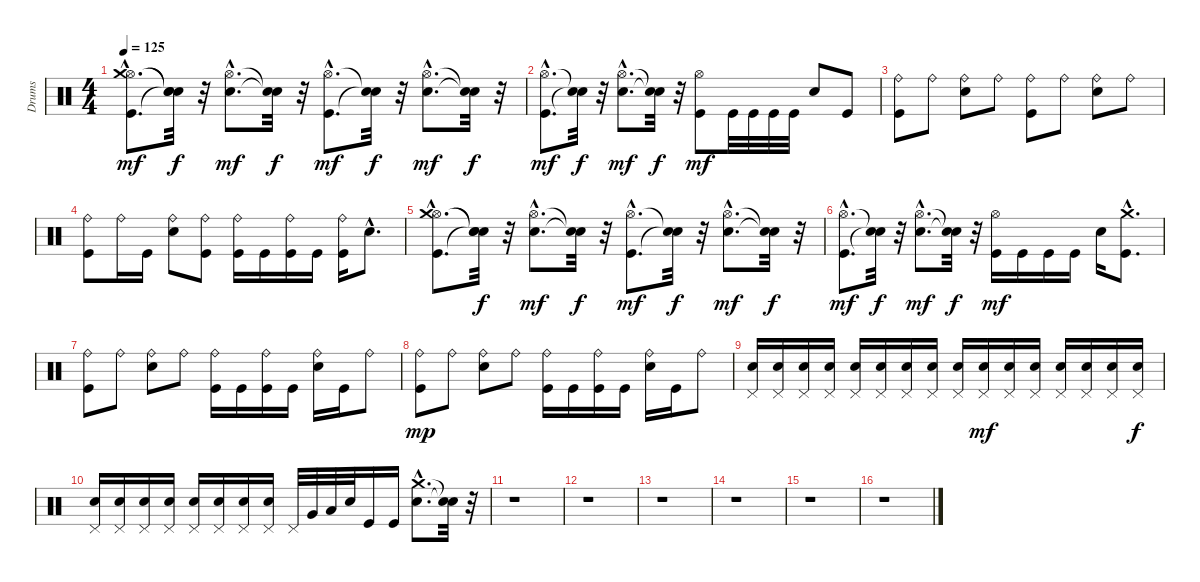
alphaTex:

\track ("Drums" "Drums") {instrument percussion}
\staff {score}
\articulation defaults
\ts (4 4)
\tempo 125
\clef neutral
\ks c
("Kick (hit)"{hac} "Hi-Hat (open)"{hac} "Crash medium (hit)"{hac}).8{d dy mf} ("Snare (hit)"{t} "Snare (hit)"{t} "Snare (hit)"{t}).32{dy f} r.32 ("Electric Snare (hit)"{hac} "Hi-Hat (open)"{hac}).8{d dy mf} ("Snare (hit)"{t} "Snare (hit)"{t}).32{dy f} r.32 ("Kick (hit)"{hac} "Hi-Hat (open)"{hac}).8{d dy mf} ("Snare (hit)"{t} "Snare (hit)"{t}).32{dy f} r.32 ("Electric Snare (hit)"{hac} "Hi-Hat (open)"{hac}).8{d dy mf} ("Snare (hit)"{t} "Snare (hit)"{t}).32{dy f} r.32 |
("Kick (hit)"{hac} "Hi-Hat (open)"{hac}).8{d dy mf} ("Snare (hit)"{t} "Snare (hit)"{t}).32{dy f} r.32 ("Electric Snare (hit)"{hac} "Hi-Hat (open)"{hac}).8{d dy mf} ("Snare (hit)"{t} "Snare (hit)"{t}).32{dy f} r.32 ("Kick (hit)" "Hi-Hat (open)").8{dy mf} "Kick (hit)".32 "Kick (hit)".32 "Kick (hit)".32 "Kick (hit)".32 "Electric Snare (hit)".8 "Kick (hit)".8 |
("Kick (hit)" "Ride (bell)").8 "Ride (bell)".8 ("Electric Snare (hit)" "Ride (bell)").8 "Ride (bell)".8 ("Kick (hit)" "Ride (bell)").8 "Ride (bell)".8 ("Electric Snare (hit)" "Ride (bell)").8 "Ride (bell)".8 |
("Kick (hit)" "Ride (bell)").8 "Ride (bell)".16 "Kick (hit)".16 ("Electric Snare (hit)" "Ride (bell)").8 ("Kick (hit)" "Ride (bell)").8 ("Kick (hit)" "Ride (bell)").16 "Kick (hit)".16 ("Kick (hit)" "Ride (bell)").16 "Kick (hit)".16 ("Kick (hit)" "Ride (bell)").16 "Electric Snare (hit)"{hac}.8{d} |
("Kick (hit)"{hac} "Hi-Hat (open)"{hac} "Crash medium (hit)"{hac}).8{d} ("Snare (hit)"{t} "Snare (hit)"{t} "Snare (hit)"{t}).32{dy f} r.32 ("Electric Snare (hit)"{hac} "Hi-Hat (open)"{hac}).8{d dy mf} ("Snare (hit)"{t} "Snare (hit)"{t}).32{dy f} r.32 ("Kick (hit)"{hac} "Hi-Hat (open)"{hac}).8{d dy mf} ("Snare (hit)"{t} "Snare (hit)"{t}).32{dy f} r.32 ("Electric Snare (hit)"{hac} "Hi-Hat (open)"{hac}).8{d dy mf} ("Snare (hit)"{t} "Snare (hit)"{t}).32{dy f} r.32 |
("Kick (hit)"{hac} "Hi-Hat (open)"{hac}).8{d dy mf} ("Snare (hit)"{t} "Snare (hit)"{t}).32{dy f} r.32 ("Electric Snare (hit)"{hac} "Hi-Hat (open)"{hac}).8{d dy mf} ("Snare (hit)"{t} "Snare (hit)"{t}).32{dy f} r.32 ("Kick (hit)" "Hi-Hat (open)").16{dy mf} "Kick (hit)".16 "Kick (hit)".16 "Kick (hit)".16 "Electric Snare (hit)".16 ("Kick (hit)"{hac} "Crash medium (hit)"{hac}).8{d} |
("Kick (hit)" "Ride (bell)").8 "Ride (bell)".8 ("Electric Snare (hit)" "Ride (bell)").8 "Ride (bell)".8 ("Kick (hit)" "Ride (bell)").16 "Kick (hit)".16 ("Kick (hit)" "Ride (bell)").16 "Kick (hit)".16 ("Electric Snare (hit)" "Ride (bell)").16 "Kick (hit)".16 "Ride (bell)".8 |
("Kick (hit)" "Ride (bell)").8{dy mp} "Ride (bell)".8 ("Electric Snare (hit)" "Ride (bell)").8 "Ride (bell)".8 ("Kick (hit)" "Ride (bell)").16 "Kick (hit)".16 ("Kick (hit)" "Ride (bell)").16 "Kick (hit)".16 ("Electric Snare (hit)" "Ride (bell)").16 "Kick (hit)".16 "Ride (bell)".8 |
("Electric Snare (hit)" "Pedal Hi-Hat (hit)").16 ("Electric Snare (hit)" "Pedal Hi-Hat (hit)").16 ("Electric Snare (hit)" "Pedal Hi-Hat (hit)").16 ("Electric Snare (hit)" "Pedal Hi-Hat (hit)").16 ("Electric Snare (hit)" "Pedal Hi-Hat (hit)").16 ("Electric Snare (hit)" "Pedal Hi-Hat (hit)").16 ("Electric Snare (hit)" "Pedal Hi-Hat (hit)").16 ("Electric Snare (hit)" "Pedal Hi-Hat (hit)").16 ("Electric Snare (hit)" "Pedal Hi-Hat (hit)").16 ("Electric Snare (hit)" "Pedal Hi-Hat (hit)").16{dy mf} ("Electric Snare (hit)" "Pedal Hi-Hat (hit)").16 ("Electric Snare (hit)" "Pedal Hi-Hat (hit)").16 ("Electric Snare (hit)" "Pedal Hi-Hat (hit)").16 ("Electric Snare (hit)" "Pedal Hi-Hat (hit)").16 ("Electric Snare (hit)" "Pedal Hi-Hat (hit)").16 ("Electric Snare (hit)" "Pedal Hi-Hat (hit)").16{dy f} |
("Electric Snare (hit)" "Pedal Hi-Hat (hit)").16 ("Electric Snare (hit)" "Pedal Hi-Hat (hit)").16 ("Electric Snare (hit)" "Pedal Hi-Hat (hit)").16 ("Electric Snare (hit)" "Pedal Hi-Hat (hit)").16 ("Electric Snare (hit)" "Pedal Hi-Hat (hit)").16 ("Electric Snare (hit)" "Pedal Hi-Hat (hit)").16 ("Electric Snare (hit)" "Pedal Hi-Hat (hit)").16 ("Electric Snare (hit)" "Pedal Hi-Hat (hit)").16 "Pedal Hi-Hat (hit)".32 "Very Low Tom (hit)".32 "Low Floor Tom (hit)".32 "Electric Snare (hit)".32 "Kick (hit)".16 "Kick (hit)".16 ("Electric Snare (hit)"{hac} "Crash medium (hit)"{hac}).8{d} ("Snare (hit)"{t} "Snare (hit)"{t}).32 r.32 |
r.1 |
r.1 |
r.1 |
r.1 |
r.1 |
r.1
